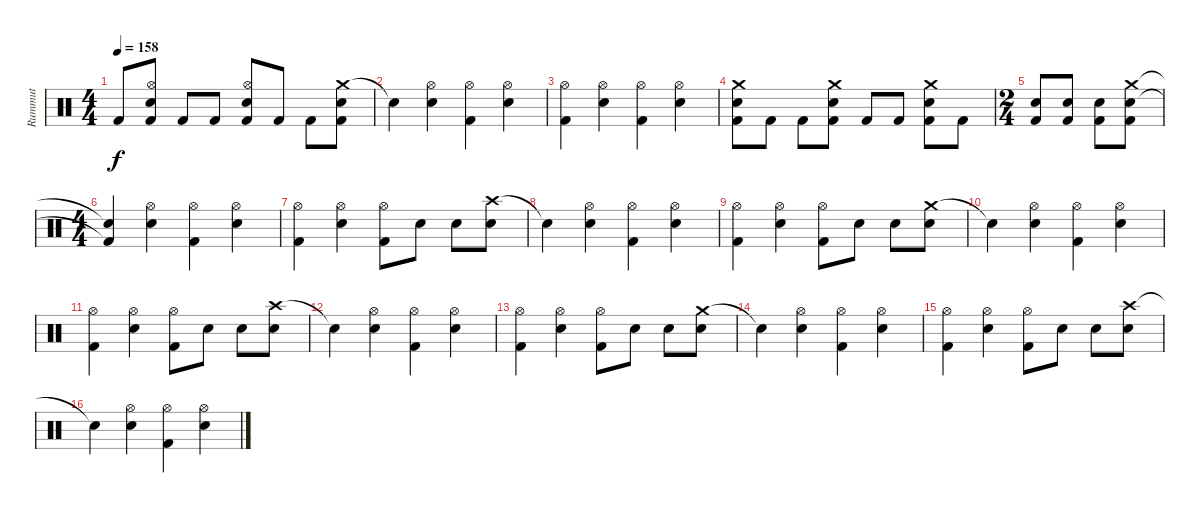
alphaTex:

\track ("Rummut" "Rummut") {instrument percussion}
\staff {score}
\articulation defaults
\ts (4 4)
\tempo 158
\clef neutral
\ks c "Kick (hit) 2".8{dy f}
("Hi-Hat (open)" "Electric Snare (hit)" "Kick (hit) 2").8 "Kick (hit) 2".8 "Kick (hit) 2".8 ("Hi-Hat (open)" "Electric Snare (hit)" "Kick (hit) 2").8 "Kick (hit) 2".8 "Kick (hit) 2".8 ("Crash medium (hit)" "Electric Snare (hit)" "Kick (hit) 2").8 |
"Snare (hit)"{t}.4 ("Hi-Hat (open)" "Electric Snare (hit)").4 ("Hi-Hat (open)" "Kick (hit) 2").4 ("Hi-Hat (open)" "Electric Snare (hit)").4 |
("Hi-Hat (open)" "Kick (hit) 2").4 ("Hi-Hat (open)" "Electric Snare (hit)").4 ("Hi-Hat (open)" "Kick (hit) 2").4 ("Hi-Hat (open)" "Electric Snare (hit)").4 |
("Crash medium (hit)" "Electric Snare (hit)" "Kick (hit) 2").8 "Kick (hit) 2".8 "Kick (hit) 2".8 ("Crash medium (hit)" "Electric Snare (hit)" "Kick (hit) 2").8 "Kick (hit) 2".8 "Kick (hit) 2".8 ("Crash medium (hit)" "Electric Snare (hit)" "Kick (hit) 2").8 "Kick (hit) 2".8 |
\ts (2 4)
("Electric Snare (hit)" "Kick (hit) 2").8 ("Electric Snare (hit)" "Kick (hit) 2").8 ("Electric Snare (hit)" "Kick (hit) 2").8 ("Crash medium (hit)" "Electric Snare (hit)" "Kick (hit) 2").8 |
\ts (4 4)
("Snare (hit)"{t} "Kick (hit) 2"{t}).4 ("Hi-Hat (open)" "Electric Snare (hit)").4 ("Hi-Hat (open)" "Kick (hit) 2").4 ("Hi-Hat (open)" "Electric Snare (hit)").4 |
("Hi-Hat (open)" "Kick (hit) 2").4 ("Hi-Hat (open)" "Electric Snare (hit)").4 ("Hi-Hat (open)" "Kick (hit) 2").8 "Electric Snare (hit)".8 "Electric Snare (hit)".8 ("Crash high (hit)" "Electric Snare (hit)").8 |
"Snare (hit)"{t}.4 ("Hi-Hat (open)" "Electric Snare (hit)").4 ("Hi-Hat (open)" "Kick (hit) 2").4 ("Hi-Hat (open)" "Electric Snare (hit)").4 |
("Hi-Hat (open)" "Kick (hit) 2").4 ("Hi-Hat (open)" "Electric Snare (hit)").4 ("Hi-Hat (open)" "Kick (hit) 2").8 "Electric Snare (hit)".8 "Electric Snare (hit)".8 ("Crash medium (hit)" "Electric Snare (hit)").8 |
"Snare (hit)"{t}.4 ("Hi-Hat (open)" "Electric Snare (hit)").4 ("Hi-Hat (open)" "Kick (hit) 2").4 ("Hi-Hat (open)" "Electric Snare (hit)").4 |
("Hi-Hat (open)" "Kick (hit) 2").4 ("Hi-Hat (open)" "Electric Snare (hit)").4 ("Hi-Hat (open)" "Kick (hit) 2").8 "Electric Snare (hit)".8 "Electric Snare (hit)".8 ("Crash high (hit)" "Electric Snare (hit)").8 |
"Snare (hit)"{t}.4 ("Hi-Hat (open)" "Electric Snare (hit)").4 ("Hi-Hat (open)" "Kick (hit) 2").4 ("Hi-Hat (open)" "Electric Snare (hit)").4 |
("Hi-Hat (open)" "Kick (hit) 2").4 ("Hi-Hat (open)" "Electric Snare (hit)").4 ("Hi-Hat (open)" "Kick (hit) 2").8 "Electric Snare (hit)".8 "Electric Snare (hit)".8 ("Crash medium (hit)" "Electric Snare (hit)").8 |
"Snare (hit)"{t}.4 ("Hi-Hat (open)" "Electric Snare (hit)").4 ("Hi-Hat (open)" "Kick (hit) 2").4 ("Hi-Hat (open)" "Electric Snare (hit)").4 |
("Hi-Hat (open)" "Kick (hit) 2").4 ("Hi-Hat (open)" "Electric Snare (hit)").4 ("Hi-Hat (open)" "Kick (hit) 2").8 "Electric Snare (hit)".8 "Electric Snare (hit)".8 ("Crash high (hit)" "Electric Snare (hit)").8 |
"Snare (hit)"{t}.4 ("Hi-Hat (open)" "Electric Snare (hit)").4 ("Hi-Hat (open)" "Kick (hit) 2").4 ("Hi-Hat (open)" "Electric Snare (hit)").4
